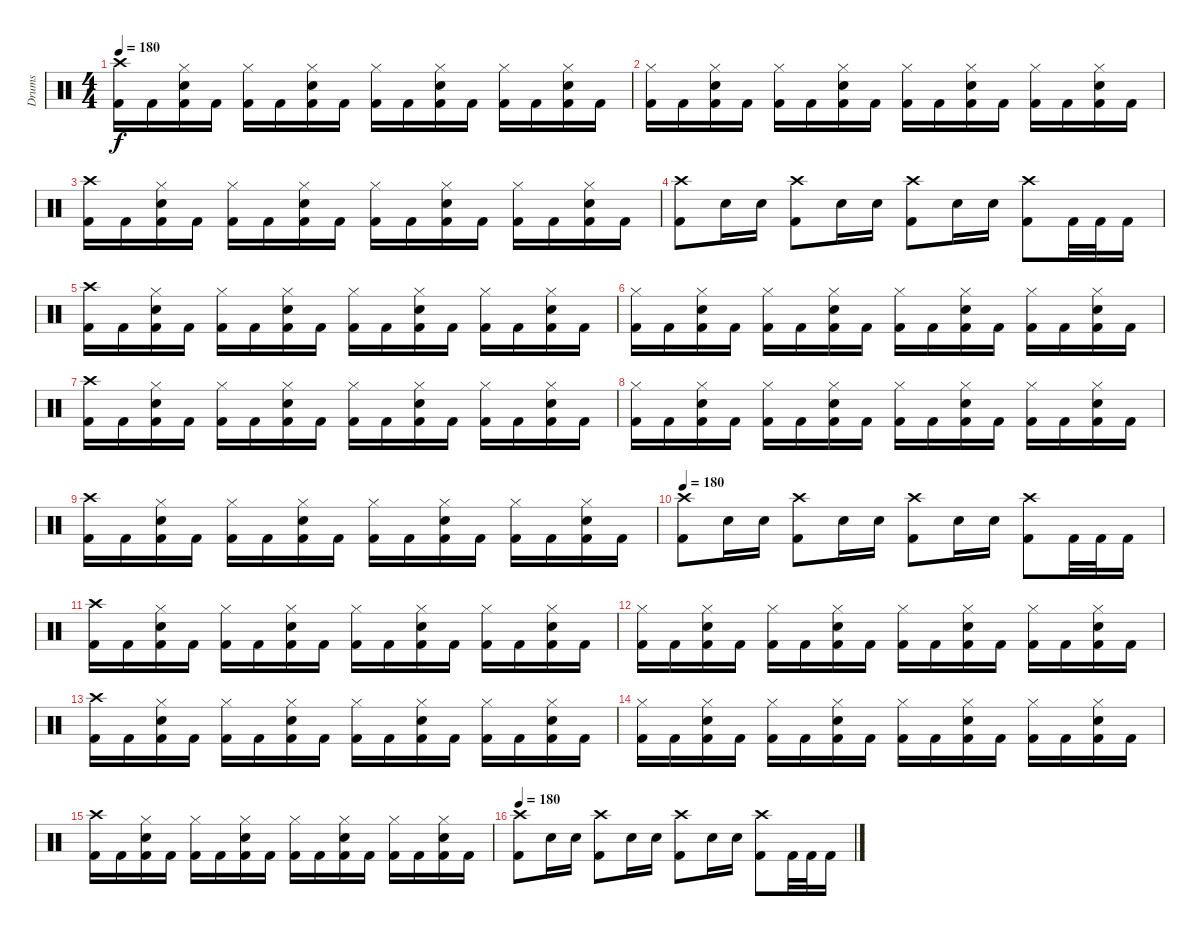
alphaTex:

\track ("Drums" "Drums") {instrument percussion}
\staff {score}
\articulation defaults
\ts (4 4)
\tempo 180
\clef neutral
\ks c
("Crash high (hit)" "Kick (hit) 2").16{dy f} "Kick (hit) 2".16 ("Hi-Hat (closed)" "Electric Snare (hit)" "Kick (hit) 2").16 "Kick (hit) 2".16 ("Hi-Hat (closed)" "Kick (hit) 2").16 "Kick (hit) 2".16 ("Hi-Hat (closed)" "Electric Snare (hit)" "Kick (hit) 2").16 "Kick (hit) 2".16 ("Hi-Hat (closed)" "Kick (hit) 2").16 "Kick (hit) 2".16 ("Hi-Hat (closed)" "Electric Snare (hit)" "Kick (hit) 2").16 "Kick (hit) 2".16 ("Hi-Hat (closed)" "Kick (hit) 2").16 "Kick (hit) 2".16 ("Hi-Hat (closed)" "Electric Snare (hit)" "Kick (hit) 2").16 "Kick (hit) 2".16 |
("Hi-Hat (closed)" "Kick (hit) 2").16 "Kick (hit) 2".16 ("Hi-Hat (closed)" "Electric Snare (hit)" "Kick (hit) 2").16 "Kick (hit) 2".16 ("Hi-Hat (closed)" "Kick (hit) 2").16 "Kick (hit) 2".16 ("Hi-Hat (closed)" "Electric Snare (hit)" "Kick (hit) 2").16 "Kick (hit) 2".16 ("Hi-Hat (closed)" "Kick (hit) 2").16 "Kick (hit) 2".16 ("Hi-Hat (closed)" "Electric Snare (hit)" "Kick (hit) 2").16 "Kick (hit) 2".16 ("Hi-Hat (closed)" "Kick (hit) 2").16 "Kick (hit) 2".16 ("Hi-Hat (closed)" "Electric Snare (hit)" "Kick (hit) 2").16 "Kick (hit) 2".16 |
("Crash high (hit)" "Kick (hit) 2").16 "Kick (hit) 2".16 ("Hi-Hat (closed)" "Electric Snare (hit)" "Kick (hit) 2").16 "Kick (hit) 2".16 ("Hi-Hat (closed)" "Kick (hit) 2").16 "Kick (hit) 2".16 ("Hi-Hat (closed)" "Electric Snare (hit)" "Kick (hit) 2").16 "Kick (hit) 2".16 ("Hi-Hat (closed)" "Kick (hit) 2").16 "Kick (hit) 2".16 ("Hi-Hat (closed)" "Electric Snare (hit)" "Kick (hit) 2").16 "Kick (hit) 2".16 ("Hi-Hat (closed)" "Kick (hit) 2").16 "Kick (hit) 2".16 ("Hi-Hat (closed)" "Electric Snare (hit)" "Kick (hit) 2").16 "Kick (hit) 2".16 |
("Crash high (hit)" "Kick (hit) 2").8 "Electric Snare (hit)".16 "Electric Snare (hit)".16 ("Crash high (hit)" "Kick (hit) 2").8 "Electric Snare (hit)".16 "Electric Snare (hit)".16 ("Crash high (hit)" "Kick (hit) 2").8 "Electric Snare (hit)".16 "Electric Snare (hit)".16 ("Crash high (hit)" "Kick (hit) 2").8 "Kick (hit) 2".32 "Kick (hit) 2".32 "Kick (hit) 2".16 |
("Crash high (hit)" "Kick (hit) 2").16 "Kick (hit) 2".16 ("Hi-Hat (closed)" "Electric Snare (hit)" "Kick (hit) 2").16 "Kick (hit) 2".16 ("Hi-Hat (closed)" "Kick (hit) 2").16 "Kick (hit) 2".16 ("Hi-Hat (closed)" "Electric Snare (hit)" "Kick (hit) 2").16 "Kick (hit) 2".16 ("Hi-Hat (closed)" "Kick (hit) 2").16 "Kick (hit) 2".16 ("Hi-Hat (closed)" "Electric Snare (hit)" "Kick (hit) 2").16 "Kick (hit) 2".16 ("Hi-Hat (closed)" "Kick (hit) 2").16 "Kick (hit) 2".16 ("Hi-Hat (closed)" "Electric Snare (hit)" "Kick (hit) 2").16 "Kick (hit) 2".16 |
("Hi-Hat (closed)" "Kick (hit) 2").16 "Kick (hit) 2".16 ("Hi-Hat (closed)" "Electric Snare (hit)" "Kick (hit) 2").16 "Kick (hit) 2".16 ("Hi-Hat (closed)" "Kick (hit) 2").16 "Kick (hit) 2".16 ("Hi-Hat (closed)" "Electric Snare (hit)" "Kick (hit) 2").16 "Kick (hit) 2".16 ("Hi-Hat (closed)" "Kick (hit) 2").16 "Kick (hit) 2".16 ("Hi-Hat (closed)" "Electric Snare (hit)" "Kick (hit) 2").16 "Kick (hit) 2".16 ("Hi-Hat (closed)" "Kick (hit) 2").16 "Kick (hit) 2".16 ("Hi-Hat (closed)" "Electric Snare (hit)" "Kick (hit) 2").16 "Kick (hit) 2".16 |
("Crash high (hit)" "Kick (hit) 2").16 "Kick (hit) 2".16 ("Hi-Hat (closed)" "Electric Snare (hit)" "Kick (hit) 2").16 "Kick (hit) 2".16 ("Hi-Hat (closed)" "Kick (hit) 2").16 "Kick (hit) 2".16 ("Hi-Hat (closed)" "Electric Snare (hit)" "Kick (hit) 2").16 "Kick (hit) 2".16 ("Hi-Hat (closed)" "Kick (hit) 2").16 "Kick (hit) 2".16 ("Hi-Hat (closed)" "Electric Snare (hit)" "Kick (hit) 2").16 "Kick (hit) 2".16 ("Hi-Hat (closed)" "Kick (hit) 2").16 "Kick (hit) 2".16 ("Hi-Hat (closed)" "Electric Snare (hit)" "Kick (hit) 2").16 "Kick (hit) 2".16 |
("Hi-Hat (closed)" "Kick (hit) 2").16 "Kick (hit) 2".16 ("Hi-Hat (closed)" "Electric Snare (hit)" "Kick (hit) 2").16 "Kick (hit) 2".16 ("Hi-Hat (closed)" "Kick (hit) 2").16 "Kick (hit) 2".16 ("Hi-Hat (closed)" "Electric Snare (hit)" "Kick (hit) 2").16 "Kick (hit) 2".16 ("Hi-Hat (closed)" "Kick (hit) 2").16 "Kick (hit) 2".16 ("Hi-Hat (closed)" "Electric Snare (hit)" "Kick (hit) 2").16 "Kick (hit) 2".16 ("Hi-Hat (closed)" "Kick (hit) 2").16 "Kick (hit) 2".16 ("Hi-Hat (closed)" "Electric Snare (hit)" "Kick (hit) 2").16 "Kick (hit) 2".16 |
("Crash high (hit)" "Kick (hit) 2").16 "Kick (hit) 2".16 ("Hi-Hat (closed)" "Electric Snare (hit)" "Kick (hit) 2").16 "Kick (hit) 2".16 ("Hi-Hat (closed)" "Kick (hit) 2").16 "Kick (hit) 2".16 ("Hi-Hat (closed)" "Electric Snare (hit)" "Kick (hit) 2").16 "Kick (hit) 2".16 ("Hi-Hat (closed)" "Kick (hit) 2").16 "Kick (hit) 2".16 ("Hi-Hat (closed)" "Electric Snare (hit)" "Kick (hit) 2").16 "Kick (hit) 2".16 ("Hi-Hat (closed)" "Kick (hit) 2").16 "Kick (hit) 2".16 ("Hi-Hat (closed)" "Electric Snare (hit)" "Kick (hit) 2").16 "Kick (hit) 2".16 |
\tempo 180
("Crash high (hit)" "Kick (hit) 2").8 "Electric Snare (hit)".16 "Electric Snare (hit)".16 ("Crash high (hit)" "Kick (hit) 2").8 "Electric Snare (hit)".16 "Electric Snare (hit)".16 ("Crash high (hit)" "Kick (hit) 2").8 "Electric Snare (hit)".16 "Electric Snare (hit)".16 ("Crash high (hit)" "Kick (hit) 2").8 "Kick (hit) 2".32 "Kick (hit) 2".32 "Kick (hit) 2".16 |
("Crash high (hit)" "Kick (hit) 2").16 "Kick (hit) 2".16 ("Hi-Hat (closed)" "Electric Snare (hit)" "Kick (hit) 2").16 "Kick (hit) 2".16 ("Hi-Hat (closed)" "Kick (hit) 2").16 "Kick (hit) 2".16 ("Hi-Hat (closed)" "Electric Snare (hit)" "Kick (hit) 2").16 "Kick (hit) 2".16 ("Hi-Hat (closed)" "Kick (hit) 2").16 "Kick (hit) 2".16 ("Hi-Hat (closed)" "Electric Snare (hit)" "Kick (hit) 2").16 "Kick (hit) 2".16 ("Hi-Hat (closed)" "Kick (hit) 2").16 "Kick (hit) 2".16 ("Hi-Hat (closed)" "Electric Snare (hit)" "Kick (hit) 2").16 "Kick (hit) 2".16 |
("Hi-Hat (closed)" "Kick (hit) 2").16 "Kick (hit) 2".16 ("Hi-Hat (closed)" "Electric Snare (hit)" "Kick (hit) 2").16 "Kick (hit) 2".16 ("Hi-Hat (closed)" "Kick (hit) 2").16 "Kick (hit) 2".16 ("Hi-Hat (closed)" "Electric Snare (hit)" "Kick (hit) 2").16 "Kick (hit) 2".16 ("Hi-Hat (closed)" "Kick (hit) 2").16 "Kick (hit) 2".16 ("Hi-Hat (closed)" "Electric Snare (hit)" "Kick (hit) 2").16 "Kick (hit) 2".16 ("Hi-Hat (closed)" "Kick (hit) 2").16 "Kick (hit) 2".16 ("Hi-Hat (closed)" "Electric Snare (hit)" "Kick (hit) 2").16 "Kick (hit) 2".16 |
("Crash high (hit)" "Kick (hit) 2").16 "Kick (hit) 2".16 ("Hi-Hat (closed)" "Electric Snare (hit)" "Kick (hit) 2").16 "Kick (hit) 2".16 ("Hi-Hat (closed)" "Kick (hit) 2").16 "Kick (hit) 2".16 ("Hi-Hat (closed)" "Electric Snare (hit)" "Kick (hit) 2").16 "Kick (hit) 2".16 ("Hi-Hat (closed)" "Kick (hit) 2").16 "Kick (hit) 2".16 ("Hi-Hat (closed)" "Electric Snare (hit)" "Kick (hit) 2").16 "Kick (hit) 2".16 ("Hi-Hat (closed)" "Kick (hit) 2").16 "Kick (hit) 2".16 ("Hi-Hat (closed)" "Electric Snare (hit)" "Kick (hit) 2").16 "Kick (hit) 2".16 |
("Hi-Hat (closed)" "Kick (hit) 2").16 "Kick (hit) 2".16 ("Hi-Hat (closed)" "Electric Snare (hit)" "Kick (hit) 2").16 "Kick (hit) 2".16 ("Hi-Hat (closed)" "Kick (hit) 2").16 "Kick (hit) 2".16 ("Hi-Hat (closed)" "Electric Snare (hit)" "Kick (hit) 2").16 "Kick (hit) 2".16 ("Hi-Hat (closed)" "Kick (hit) 2").16 "Kick (hit) 2".16 ("Hi-Hat (closed)" "Electric Snare (hit)" "Kick (hit) 2").16 "Kick (hit) 2".16 ("Hi-Hat (closed)" "Kick (hit) 2").16 "Kick (hit) 2".16 ("Hi-Hat (closed)" "Electric Snare (hit)" "Kick (hit) 2").16 "Kick (hit) 2".16 |
("Crash high (hit)" "Kick (hit) 2").16 "Kick (hit) 2".16 ("Hi-Hat (closed)" "Electric Snare (hit)" "Kick (hit) 2").16 "Kick (hit) 2".16 ("Hi-Hat (closed)" "Kick (hit) 2").16 "Kick (hit) 2".16 ("Hi-Hat (closed)" "Electric Snare (hit)" "Kick (hit) 2").16 "Kick (hit) 2".16 ("Hi-Hat (closed)" "Kick (hit) 2").16 "Kick (hit) 2".16 ("Hi-Hat (closed)" "Electric Snare (hit)" "Kick (hit) 2").16 "Kick (hit) 2".16 ("Hi-Hat (closed)" "Kick (hit) 2").16 "Kick (hit) 2".16 ("Hi-Hat (closed)" "Electric Snare (hit)" "Kick (hit) 2").16 "Kick (hit) 2".16 |
\tempo 180
("Crash high (hit)" "Kick (hit) 2").8 "Electric Snare (hit)".16 "Electric Snare (hit)".16 ("Crash high (hit)" "Kick (hit) 2").8 "Electric Snare (hit)".16 "Electric Snare (hit)".16 ("Crash high (hit)" "Kick (hit) 2").8 "Electric Snare (hit)".16 "Electric Snare (hit)".16 ("Crash high (hit)" "Kick (hit) 2").8 "Kick (hit) 2".32 "Kick (hit) 2".32 "Kick (hit) 2".16
